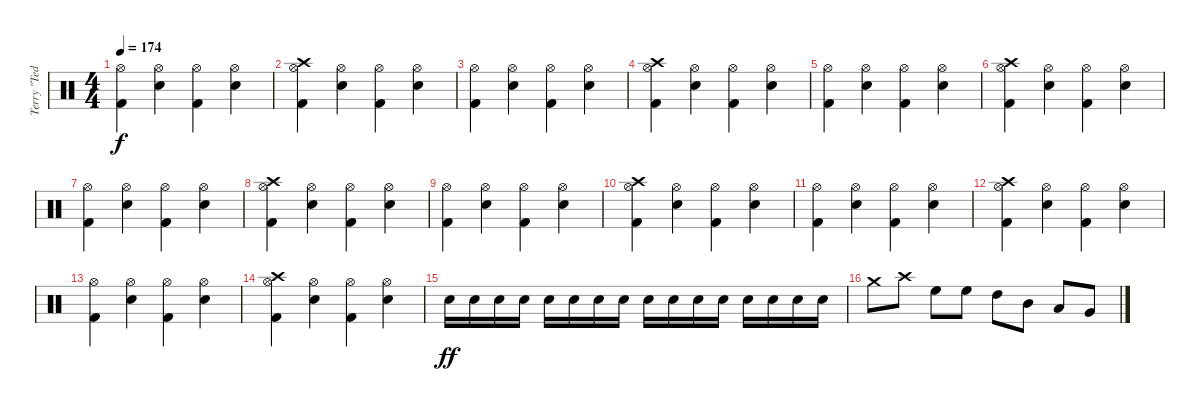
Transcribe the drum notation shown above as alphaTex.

\track ("Terry \"Ted\" Bozzio" "Terry \"Ted") {instrument percussion}
\staff {score}
\articulation defaults
\ts (4 4)
\tempo 174
\clef neutral
\ks c
("Hi-Hat (open)" "Kick (hit) 2").4{dy f} ("Hi-Hat (open)" "Electric Snare (hit)").4 ("Hi-Hat (open)" "Kick (hit) 2").4 ("Hi-Hat (open)" "Electric Snare (hit)").4 |
("Crash high (hit)" "Hi-Hat (open)" "Kick (hit) 2").4 ("Hi-Hat (open)" "Electric Snare (hit)").4 ("Hi-Hat (open)" "Kick (hit) 2").4 ("Hi-Hat (open)" "Electric Snare (hit)").4 |
("Hi-Hat (open)" "Kick (hit) 2").4 ("Hi-Hat (open)" "Electric Snare (hit)").4 ("Hi-Hat (open)" "Kick (hit) 2").4 ("Hi-Hat (open)" "Electric Snare (hit)").4 |
("Crash high (hit)" "Hi-Hat (open)" "Kick (hit) 2").4 ("Hi-Hat (open)" "Electric Snare (hit)").4 ("Hi-Hat (open)" "Kick (hit) 2").4 ("Hi-Hat (open)" "Electric Snare (hit)").4 |
("Hi-Hat (open)" "Kick (hit) 2").4 ("Hi-Hat (open)" "Electric Snare (hit)").4 ("Hi-Hat (open)" "Kick (hit) 2").4 ("Hi-Hat (open)" "Electric Snare (hit)").4 |
("Crash high (hit)" "Hi-Hat (open)" "Kick (hit) 2").4 ("Hi-Hat (open)" "Electric Snare (hit)").4 ("Hi-Hat (open)" "Kick (hit) 2").4 ("Hi-Hat (open)" "Electric Snare (hit)").4 |
("Hi-Hat (open)" "Kick (hit) 2").4 ("Hi-Hat (open)" "Electric Snare (hit)").4 ("Hi-Hat (open)" "Kick (hit) 2").4 ("Hi-Hat (open)" "Electric Snare (hit)").4 |
("Crash high (hit)" "Hi-Hat (open)" "Kick (hit) 2").4 ("Hi-Hat (open)" "Electric Snare (hit)").4 ("Hi-Hat (open)" "Kick (hit) 2").4 ("Hi-Hat (open)" "Electric Snare (hit)").4 |
("Hi-Hat (open)" "Kick (hit) 2").4 ("Hi-Hat (open)" "Electric Snare (hit)").4 ("Hi-Hat (open)" "Kick (hit) 2").4 ("Hi-Hat (open)" "Electric Snare (hit)").4 |
("Crash high (hit)" "Hi-Hat (open)" "Kick (hit) 2").4 ("Hi-Hat (open)" "Electric Snare (hit)").4 ("Hi-Hat (open)" "Kick (hit) 2").4 ("Hi-Hat (open)" "Electric Snare (hit)").4 |
("Hi-Hat (open)" "Kick (hit) 2").4 ("Hi-Hat (open)" "Electric Snare (hit)").4 ("Hi-Hat (open)" "Kick (hit) 2").4 ("Hi-Hat (open)" "Electric Snare (hit)").4 |
("Crash high (hit)" "Hi-Hat (open)" "Kick (hit) 2").4 ("Hi-Hat (open)" "Electric Snare (hit)").4 ("Hi-Hat (open)" "Kick (hit) 2").4 ("Hi-Hat (open)" "Electric Snare (hit)").4 |
("Hi-Hat (open)" "Kick (hit) 2").4 ("Hi-Hat (open)" "Electric Snare (hit)").4 ("Hi-Hat (open)" "Kick (hit) 2").4 ("Hi-Hat (open)" "Electric Snare (hit)").4 |
("Crash high (hit)" "Hi-Hat (open)" "Kick (hit) 2").4 ("Hi-Hat (open)" "Electric Snare (hit)").4 ("Hi-Hat (open)" "Kick (hit) 2").4 ("Hi-Hat (open)" "Electric Snare (hit)").4 |
"Electric Snare (hit)".16{dy ff} "Electric Snare (hit)".16 "Electric Snare (hit)".16 "Electric Snare (hit)".16 "Electric Snare (hit)".16 "Electric Snare (hit)".16 "Electric Snare (hit)".16 "Electric Snare (hit)".16 "Electric Snare (hit)".16 "Electric Snare (hit)".16 "Electric Snare (hit)".16 "Electric Snare (hit)".16 "Electric Snare (hit)".16 "Electric Snare (hit)".16 "Electric Snare (hit)".16 "Electric Snare (hit)".16 |
"Crash medium (hit)".8 "Crash high (hit)".8 "High Floor Tom (hit)".8 "High Floor Tom (hit)".8 "High Tom (hit)".8 "Mid Tom (hit)".8 "Low Tom (hit)".8 "Very Low Tom (hit)".8
